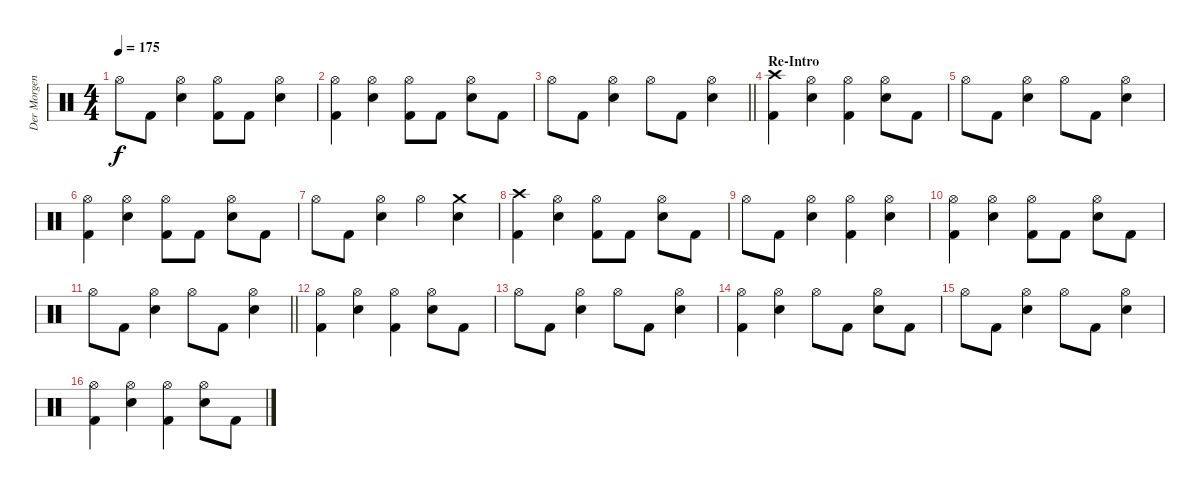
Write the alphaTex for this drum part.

\track ("Der Morgenstern" "Der Morgen") {instrument percussion}
\staff {score}
\articulation defaults
\ts (4 4)
\tempo 175
\clef neutral
\ks c "Hi-Hat (open)".8{dy f} "Kick (hit) 2".8
("Hi-Hat (open)" "Electric Snare (hit)").4 ("Hi-Hat (open)" "Kick (hit) 2").8 "Kick (hit) 2".8 ("Hi-Hat (open)" "Electric Snare (hit)").4 |
("Hi-Hat (open)" "Kick (hit) 2").4 ("Hi-Hat (open)" "Electric Snare (hit)").4 ("Hi-Hat (open)" "Kick (hit) 2").8 "Kick (hit) 2".8 ("Hi-Hat (open)" "Electric Snare (hit)").8 "Kick (hit) 2".8 |
\barLineRight lightlight "Hi-Hat (open)".8 "Kick (hit) 2".8
("Hi-Hat (open)" "Electric Snare (hit)").4 "Hi-Hat (open)".8 "Kick (hit) 2".8 ("Hi-Hat (open)" "Electric Snare (hit)").4 |
\section ("" "Re-Intro")
("Crash high (hit)" "Kick (hit) 2").4 ("Hi-Hat (open)" "Electric Snare (hit)").4 ("Hi-Hat (open)" "Kick (hit) 2").4 ("Hi-Hat (open)" "Electric Snare (hit)").8 "Kick (hit) 2".8 |
"Hi-Hat (open)".8 "Kick (hit) 2".8 ("Hi-Hat (open)" "Electric Snare (hit)").4 "Hi-Hat (open)".8 "Kick (hit) 2".8 ("Hi-Hat (open)" "Electric Snare (hit)").4 |
("Hi-Hat (open)" "Kick (hit) 2").4 ("Hi-Hat (open)" "Electric Snare (hit)").4 ("Hi-Hat (open)" "Kick (hit) 2").8 "Kick (hit) 2".8 ("Hi-Hat (open)" "Electric Snare (hit)").8 "Kick (hit) 2".8 |
"Hi-Hat (open)".8 "Kick (hit) 2".8 ("Hi-Hat (open)" "Electric Snare (hit)").4 "Hi-Hat (open)".4 ("Crash medium (hit)" "Electric Snare (hit)").4 |
("Crash high (hit)" "Kick (hit) 2").4 ("Hi-Hat (open)" "Electric Snare (hit)").4 ("Hi-Hat (open)" "Kick (hit) 2").8 "Kick (hit) 2".8 ("Hi-Hat (open)" "Electric Snare (hit)").8 "Kick (hit) 2".8 |
"Hi-Hat (open)".8 "Kick (hit) 2".8 ("Hi-Hat (open)" "Electric Snare (hit)").4 ("Hi-Hat (open)" "Kick (hit) 2").4 ("Hi-Hat (open)" "Electric Snare (hit)").4 |
("Hi-Hat (open)" "Kick (hit) 2").4 ("Hi-Hat (open)" "Electric Snare (hit)").4 ("Hi-Hat (open)" "Kick (hit) 2").8 "Kick (hit) 2".8 ("Hi-Hat (open)" "Electric Snare (hit)").8 "Kick (hit) 2".8 |
\barLineRight lightlight "Hi-Hat (open)".8 "Kick (hit) 2".8
("Hi-Hat (open)" "Electric Snare (hit)").4 "Hi-Hat (open)".8 "Kick (hit) 2".8 ("Hi-Hat (open)" "Electric Snare (hit)").4 |
("Hi-Hat (open)" "Kick (hit) 2").4 ("Hi-Hat (open)" "Electric Snare (hit)").4 ("Hi-Hat (open)" "Kick (hit) 2").4 ("Hi-Hat (open)" "Electric Snare (hit)").8 "Kick (hit) 2".8 |
"Hi-Hat (open)".8 "Kick (hit) 2".8 ("Hi-Hat (open)" "Electric Snare (hit)").4 "Hi-Hat (open)".8 "Kick (hit) 2".8 ("Hi-Hat (open)" "Electric Snare (hit)").4 |
("Hi-Hat (open)" "Kick (hit) 2").4 ("Hi-Hat (open)" "Electric Snare (hit)").4 "Hi-Hat (open)".8 "Kick (hit) 2".8 ("Hi-Hat (open)" "Electric Snare (hit)").8 "Kick (hit) 2".8 |
"Hi-Hat (open)".8 "Kick (hit) 2".8 ("Hi-Hat (open)" "Electric Snare (hit)").4 "Hi-Hat (open)".8 "Kick (hit) 2".8 ("Hi-Hat (open)" "Electric Snare (hit)").4 |
("Hi-Hat (open)" "Kick (hit) 2").4 ("Hi-Hat (open)" "Electric Snare (hit)").4 ("Hi-Hat (open)" "Kick (hit) 2").4 ("Hi-Hat (open)" "Electric Snare (hit)").8 "Kick (hit) 2".8
